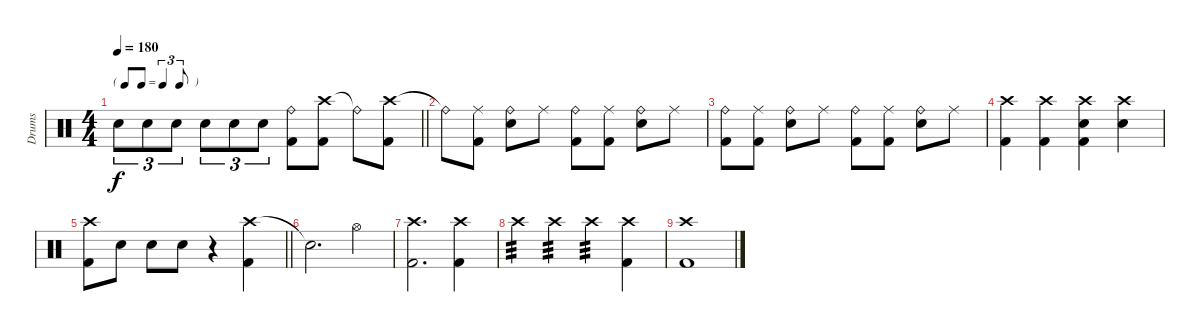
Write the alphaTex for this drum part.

\track ("Drums" "Drums") {instrument percussion}
\staff {score}
\articulation defaults
\ts (4 4)
\tf triplet8th
\tempo 180
\clef neutral
\barLineRight lightlight
\ks c "Snare (hit) 2".8{tu (3 2) dy f} "Snare (hit) 2".8{tu (3 2)} "Snare (hit) 2".8{tu (3 2)} "Snare (hit) 2".8{tu (3 2)} "Snare (hit) 2".8{tu (3 2)} "Snare (hit) 2".8{tu (3 2)}
("Ride (bell)" "Kick (hit) 2").8 ("Crash high (hit)" "Kick (hit) 2").8 "Ride (bell)"{t}.8 ("Crash high (hit)" "Kick (hit) 2").8 |
"Ride (bell)"{t}.8 ("Ride (middle)" "Kick (hit) 2").8 ("Ride (bell)" "Snare (hit) 2").8 "Ride (middle)".8 ("Ride (bell)" "Kick (hit) 2").8 ("Ride (middle)" "Kick (hit) 2").8 ("Ride (bell)" "Snare (hit) 2").8 "Ride (middle)".8 |
("Ride (bell)" "Kick (hit) 2").8 ("Ride (middle)" "Kick (hit) 2").8 ("Ride (bell)" "Snare (hit) 2").8 "Ride (middle)".8 ("Ride (bell)" "Kick (hit) 2").8 ("Ride (middle)" "Kick (hit) 2").8 ("Ride (bell)" "Snare (hit) 2").8 "Ride (middle)".8 |
("Crash high (hit)" "Kick (hit) 2").4 ("Crash high (hit)" "Kick (hit) 2").4 ("Crash high (hit)" "Snare (hit) 2" "Kick (hit) 2").4 ("Crash high (hit)" "Snare (hit) 2").4 |
\barLineRight lightlight
("Crash high (hit)" "Kick (hit) 2").8 "Snare (hit) 2".8 "Snare (hit) 2".8 "Snare (hit) 2".8 r.4 ("Crash high (hit)" "Kick (hit) 2").4 |
"Snare (hit)"{t}.2{d} "Hi-Hat (open)".4 |
("Crash high (hit)" "Kick (hit) 2").2{d} ("Crash high (hit)" "Kick (hit) 2").4 |
"Crash high (hit)".4{tp 3} "Crash high (hit)".4{tp 3} "Crash high (hit)".4{tp 3} ("Crash high (hit)" "Kick (hit) 2").4 |
("Crash high (hit)" "Kick (hit) 2").1
